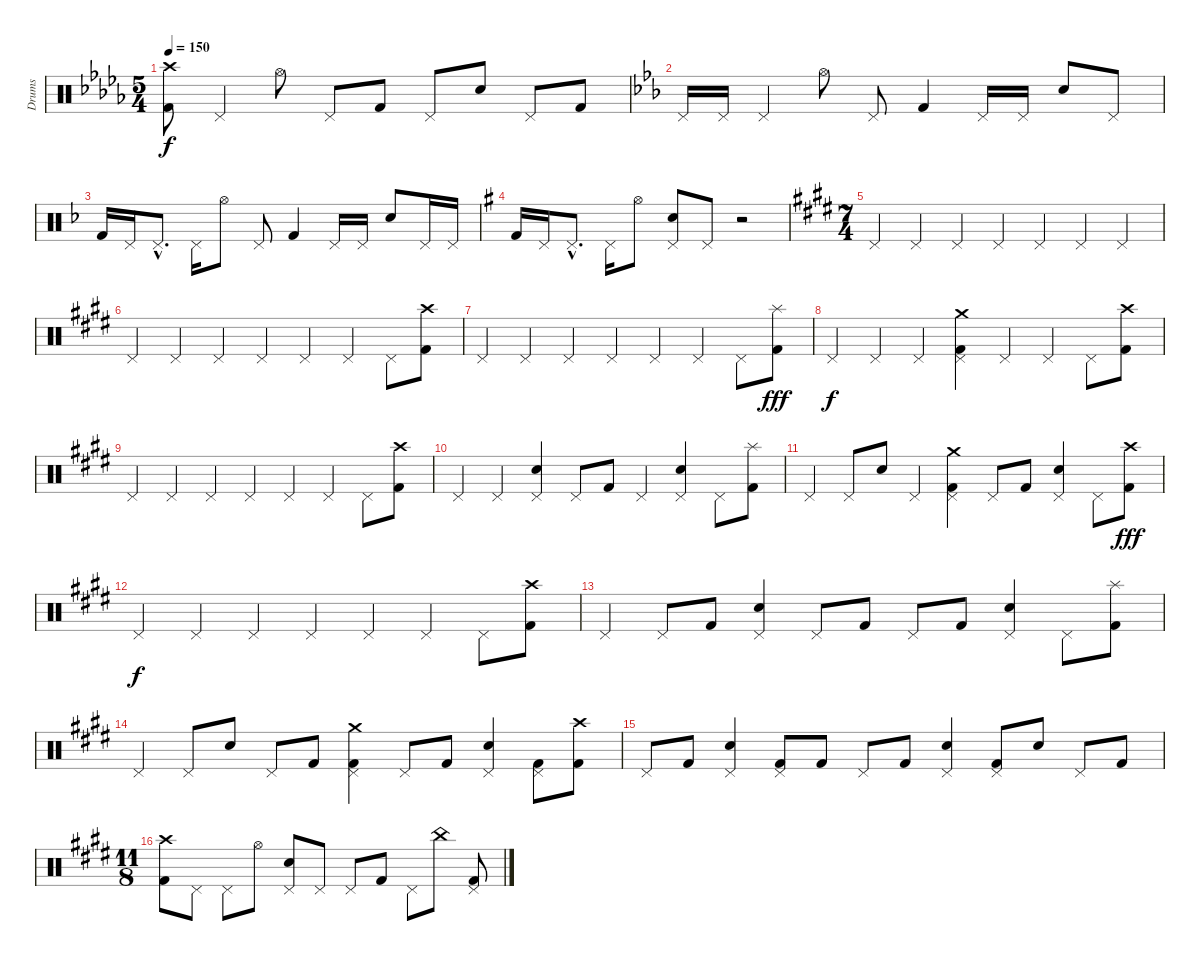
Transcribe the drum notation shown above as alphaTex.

\track ("Drums" "Drums") {instrument percussion}
\staff {score}
\articulation defaults
\ts (5 4)
\section ("" "")
\tempo 150
\clef neutral
\ks db
("Crash high (hit)" "Kick (hit) 2").8{dy f} "Pedal Hi-Hat (hit)".4 "Hi-Hat (open)".8 "Pedal Hi-Hat (hit)".8 "Kick (hit) 2".8 "Pedal Hi-Hat (hit)".8 "Electric Snare (hit)".8 "Pedal Hi-Hat (hit)".8 "Kick (hit) 2".8 |
\ks eb "Pedal Hi-Hat (hit)".16 "Pedal Hi-Hat (hit)".16 "Pedal Hi-Hat (hit)".4 "Hi-Hat (open)".8 "Pedal Hi-Hat (hit)".8 "Kick (hit) 2".4 "Pedal Hi-Hat (hit)".16 "Pedal Hi-Hat (hit)".16 "Electric Snare (hit)".8 "Pedal Hi-Hat (hit)".8
|
\ks f "Kick (hit) 2".16 "Pedal Hi-Hat (hit)".16 "Pedal Hi-Hat (hit)"{hac}.8{d} "Pedal Hi-Hat (hit)".16 "Hi-Hat (open)".8 "Pedal Hi-Hat (hit)".8 "Kick (hit) 2".4 "Pedal Hi-Hat (hit)".16 "Pedal Hi-Hat (hit)".16 "Electric Snare (hit)".8 "Pedal Hi-Hat (hit)".16 "Pedal Hi-Hat (hit)".16
|
\ks g "Kick (hit) 2".16 "Pedal Hi-Hat (hit)".16 "Pedal Hi-Hat (hit)"{hac}.8{d} "Pedal Hi-Hat (hit)".16 "Hi-Hat (open)".8
("Pedal Hi-Hat (hit)" "Electric Snare (hit)").8 "Pedal Hi-Hat (hit)".8 r.2 |
\ts (7 4)
\section ("" "")
\ks e "Pedal Hi-Hat (hit)".4 "Pedal Hi-Hat (hit)".4 "Pedal Hi-Hat (hit)".4 "Pedal Hi-Hat (hit)".4 "Pedal Hi-Hat (hit)".4 "Pedal Hi-Hat (hit)".4 "Pedal Hi-Hat (hit)".4
|
"Pedal Hi-Hat (hit)".4 "Pedal Hi-Hat (hit)".4 "Pedal Hi-Hat (hit)".4 "Pedal Hi-Hat (hit)".4 "Pedal Hi-Hat (hit)".4 "Pedal Hi-Hat (hit)".4 "Pedal Hi-Hat (hit)".8 ("Crash high (hit)" "Kick (hit) 2").8 |
"Pedal Hi-Hat (hit)".4 "Pedal Hi-Hat (hit)".4 "Pedal Hi-Hat (hit)".4 "Pedal Hi-Hat (hit)".4 "Pedal Hi-Hat (hit)".4 "Pedal Hi-Hat (hit)".4 "Pedal Hi-Hat (hit)".8 ("Splash (hit)" "Kick (hit) 2").8{dy fff} |
"Pedal Hi-Hat (hit)".4{dy f} "Pedal Hi-Hat (hit)".4 "Pedal Hi-Hat (hit)".4 ("Pedal Hi-Hat (hit)" "Crash medium (hit)" "Kick (hit) 2").4 "Pedal Hi-Hat (hit)".4 "Pedal Hi-Hat (hit)".4 "Pedal Hi-Hat (hit)".8 ("Crash high (hit)" "Kick (hit) 2").8 |
"Pedal Hi-Hat (hit)".4 "Pedal Hi-Hat (hit)".4 "Pedal Hi-Hat (hit)".4 "Pedal Hi-Hat (hit)".4 "Pedal Hi-Hat (hit)".4 "Pedal Hi-Hat (hit)".4 "Pedal Hi-Hat (hit)".8 ("Crash high (hit)" "Kick (hit) 2").8 |
"Pedal Hi-Hat (hit)".4 "Pedal Hi-Hat (hit)".4 ("Pedal Hi-Hat (hit)" "Electric Snare (hit)").4 "Pedal Hi-Hat (hit)".8 "Kick (hit) 2".8 "Pedal Hi-Hat (hit)".4 ("Pedal Hi-Hat (hit)" "Electric Snare (hit)").4 "Pedal Hi-Hat (hit)".8 ("Splash (hit)" "Kick (hit) 2").8 |
"Pedal Hi-Hat (hit)".4 "Pedal Hi-Hat (hit)".8 "Electric Snare (hit)".8 "Pedal Hi-Hat (hit)".4 ("Pedal Hi-Hat (hit)" "Crash medium (hit)" "Kick (hit) 2").4 "Pedal Hi-Hat (hit)".8 "Kick (hit) 2".8 ("Pedal Hi-Hat (hit)" "Electric Snare (hit)").4 "Pedal Hi-Hat (hit)".8 ("Crash high (hit)" "Kick (hit) 2").8{dy fff} |
"Pedal Hi-Hat (hit)".4{dy f} "Pedal Hi-Hat (hit)".4 "Pedal Hi-Hat (hit)".4 "Pedal Hi-Hat (hit)".4 "Pedal Hi-Hat (hit)".4 "Pedal Hi-Hat (hit)".4 "Pedal Hi-Hat (hit)".8 ("Crash high (hit)" "Kick (hit) 2").8 |
"Pedal Hi-Hat (hit)".4 "Pedal Hi-Hat (hit)".8 "Kick (hit) 2".8 ("Pedal Hi-Hat (hit)" "Electric Snare (hit)").4 "Pedal Hi-Hat (hit)".8 "Kick (hit) 2".8 "Pedal Hi-Hat (hit)".8 "Kick (hit) 2".8 ("Pedal Hi-Hat (hit)" "Electric Snare (hit)").4 "Pedal Hi-Hat (hit)".8 ("Splash (hit)" "Kick (hit) 2").8 |
"Pedal Hi-Hat (hit)".4 "Pedal Hi-Hat (hit)".8 "Electric Snare (hit)".8 "Pedal Hi-Hat (hit)".8 "Kick (hit) 2".8 ("Pedal Hi-Hat (hit)" "Crash medium (hit)" "Kick (hit) 2").4 "Pedal Hi-Hat (hit)".8 "Kick (hit) 2".8 ("Pedal Hi-Hat (hit)" "Electric Snare (hit)").4 ("Pedal Hi-Hat (hit)" "Kick (hit) 2").8 ("Crash high (hit)" "Kick (hit) 2").8 |
"Pedal Hi-Hat (hit)".8 "Kick (hit) 2".8 ("Pedal Hi-Hat (hit)" "Electric Snare (hit)").4 ("Pedal Hi-Hat (hit)" "Kick (hit) 2").8 "Kick (hit) 2".8 "Pedal Hi-Hat (hit)".8 "Kick (hit) 2".8 ("Pedal Hi-Hat (hit)" "Electric Snare (hit)").4 ("Pedal Hi-Hat (hit)" "Kick (hit) 2").8 "Electric Snare (hit)".8 "Pedal Hi-Hat (hit)".8 "Kick (hit) 2".8 |
\ts (11 8)
\section ("" "")
("Crash high (hit)" "Kick (hit) 2").8 "Pedal Hi-Hat (hit)".8 "Pedal Hi-Hat (hit)".8 "Hi-Hat (open)".8 ("Pedal Hi-Hat (hit)" "Electric Snare (hit)").8 "Pedal Hi-Hat (hit)".8 "Pedal Hi-Hat (hit)".8 "Kick (hit) 2".8 "Pedal Hi-Hat (hit)".8 "China (hit)".8 ("Pedal Hi-Hat (hit)" "Kick (hit) 2").8
